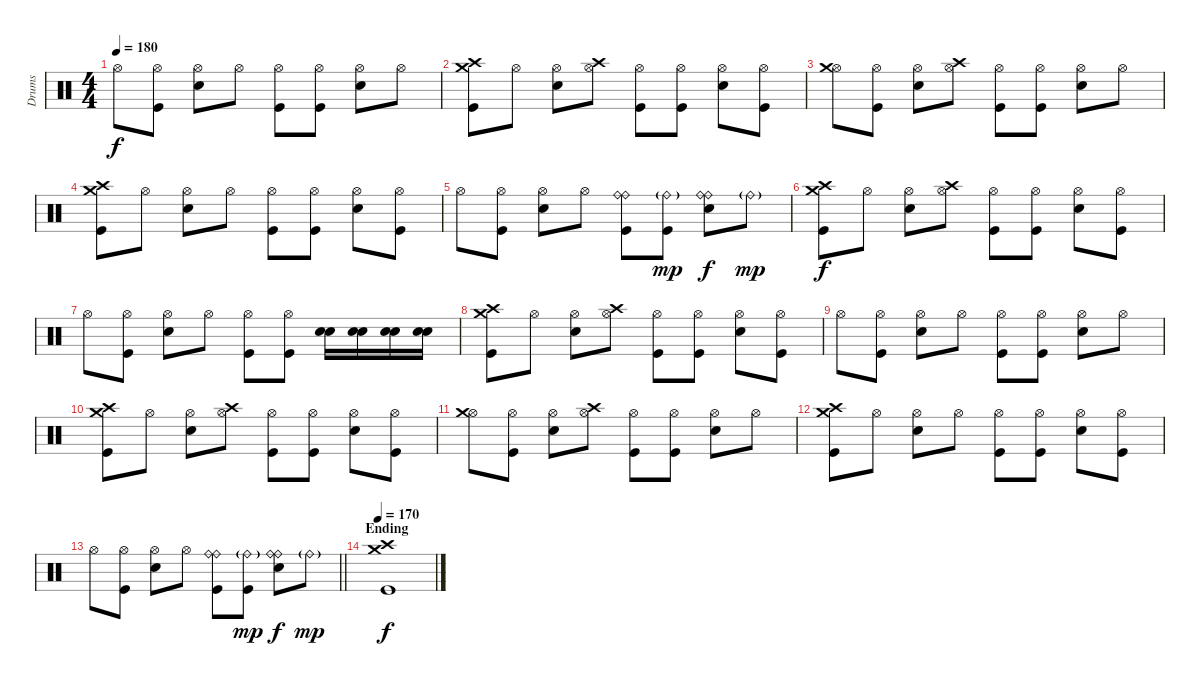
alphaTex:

\track ("Drums" "Drums") {instrument percussion}
\staff {score}
\articulation defaults
\ts (4 4)
\tempo 180
\clef neutral
\ks c "Hi-Hat (open)".8{dy f}
("Hi-Hat (open)" "Kick (hit)").8 ("Hi-Hat (open)" "Electric Snare (hit)").8 "Hi-Hat (open)".8 ("Hi-Hat (open)" "Kick (hit)").8 ("Hi-Hat (open)" "Kick (hit)").8 ("Hi-Hat (open)" "Electric Snare (hit)").8 "Hi-Hat (open)".8 |
("Crash high (hit)" "Crash medium (hit)" "Kick (hit)").8 "Hi-Hat (open)".8 ("Hi-Hat (open)" "Electric Snare (hit)").8 ("Hi-Hat (open)" "Crash high (hit)").8 ("Hi-Hat (open)" "Kick (hit)").8 ("Hi-Hat (open)" "Kick (hit)").8 ("Hi-Hat (open)" "Electric Snare (hit)").8 ("Hi-Hat (open)" "Kick (hit)").8 |
("Hi-Hat (open)" "Crash medium (hit)").8 ("Hi-Hat (open)" "Kick (hit)").8 ("Hi-Hat (open)" "Electric Snare (hit)").8 ("Hi-Hat (open)" "Crash high (hit)").8 ("Hi-Hat (open)" "Kick (hit)").8 ("Hi-Hat (open)" "Kick (hit)").8 ("Hi-Hat (open)" "Electric Snare (hit)").8 "Hi-Hat (open)".8 |
("Crash high (hit)" "Crash medium (hit)" "Kick (hit)").8 "Hi-Hat (open)".8 ("Hi-Hat (open)" "Electric Snare (hit)").8 "Hi-Hat (open)".8 ("Hi-Hat (open)" "Kick (hit)").8 ("Hi-Hat (open)" "Kick (hit)").8 ("Hi-Hat (open)" "Electric Snare (hit)").8 ("Hi-Hat (open)" "Kick (hit)").8 |
"Hi-Hat (open)".8 ("Hi-Hat (open)" "Kick (hit)").8 ("Hi-Hat (open)" "Electric Snare (hit)").8 "Hi-Hat (open)".8 ("Ride (bell)" "Ride (bell)" "Kick (hit)").8 ("Ride (bell)"{g} "Kick (hit)").8{dy mp} ("Ride (bell)" "Ride (bell)" "Electric Snare (hit)").8{dy f} "Ride (bell)"{g}.8{dy mp} |
("Crash high (hit)" "Crash medium (hit)" "Kick (hit)").8{dy f} "Hi-Hat (open)".8 ("Hi-Hat (open)" "Electric Snare (hit)").8 ("Hi-Hat (open)" "Crash high (hit)").8 ("Hi-Hat (open)" "Kick (hit)").8 ("Hi-Hat (open)" "Kick (hit)").8 ("Hi-Hat (open)" "Electric Snare (hit)").8 ("Hi-Hat (open)" "Kick (hit)").8 |
"Hi-Hat (open)".8 ("Hi-Hat (open)" "Kick (hit)").8 ("Hi-Hat (open)" "Electric Snare (hit)").8 "Hi-Hat (open)".8 ("Hi-Hat (open)" "Kick (hit)").8 ("Hi-Hat (open)" "Kick (hit)").8 ("Snare (hit) 2" "Electric Snare (hit)").16 ("Snare (hit) 2" "Electric Snare (hit)").16 ("Snare (hit) 2" "Electric Snare (hit)").16 ("Snare (hit) 2" "Electric Snare (hit)").16 |
("Crash high (hit)" "Crash medium (hit)" "Kick (hit)").8 "Hi-Hat (open)".8 ("Hi-Hat (open)" "Electric Snare (hit)").8 ("Hi-Hat (open)" "Crash high (hit)").8 ("Hi-Hat (open)" "Kick (hit)").8 ("Hi-Hat (open)" "Kick (hit)").8 ("Hi-Hat (open)" "Electric Snare (hit)").8 ("Hi-Hat (open)" "Kick (hit)").8 |
"Hi-Hat (open)".8 ("Hi-Hat (open)" "Kick (hit)").8 ("Hi-Hat (open)" "Electric Snare (hit)").8 "Hi-Hat (open)".8 ("Hi-Hat (open)" "Kick (hit)").8 ("Hi-Hat (open)" "Kick (hit)").8 ("Hi-Hat (open)" "Electric Snare (hit)").8 "Hi-Hat (open)".8 |
("Crash high (hit)" "Crash medium (hit)" "Kick (hit)").8 "Hi-Hat (open)".8 ("Hi-Hat (open)" "Electric Snare (hit)").8 ("Hi-Hat (open)" "Crash high (hit)").8 ("Hi-Hat (open)" "Kick (hit)").8 ("Hi-Hat (open)" "Kick (hit)").8 ("Hi-Hat (open)" "Electric Snare (hit)").8 ("Hi-Hat (open)" "Kick (hit)").8 |
("Hi-Hat (open)" "Crash medium (hit)").8 ("Hi-Hat (open)" "Kick (hit)").8 ("Hi-Hat (open)" "Electric Snare (hit)").8 ("Hi-Hat (open)" "Crash high (hit)").8 ("Hi-Hat (open)" "Kick (hit)").8 ("Hi-Hat (open)" "Kick (hit)").8 ("Hi-Hat (open)" "Electric Snare (hit)").8 "Hi-Hat (open)".8 |
("Crash high (hit)" "Crash medium (hit)" "Kick (hit)").8 "Hi-Hat (open)".8 ("Hi-Hat (open)" "Electric Snare (hit)").8 "Hi-Hat (open)".8 ("Hi-Hat (open)" "Kick (hit)").8 ("Hi-Hat (open)" "Kick (hit)").8 ("Hi-Hat (open)" "Electric Snare (hit)").8 ("Hi-Hat (open)" "Kick (hit)").8 |
\barLineRight lightlight "Hi-Hat (open)".8
("Hi-Hat (open)" "Kick (hit)").8 ("Hi-Hat (open)" "Electric Snare (hit)").8 "Hi-Hat (open)".8 ("Ride (bell)" "Ride (bell)" "Kick (hit)").8 ("Ride (bell)"{g} "Kick (hit)").8{dy mp} ("Ride (bell)" "Ride (bell)" "Electric Snare (hit)").8{dy f} "Ride (bell)"{g}.8{dy mp} |
\section ("" "Ending")
\tempo 170
("Crash high (hit)" "Crash medium (hit)" "Kick (hit)").1{dy f}
